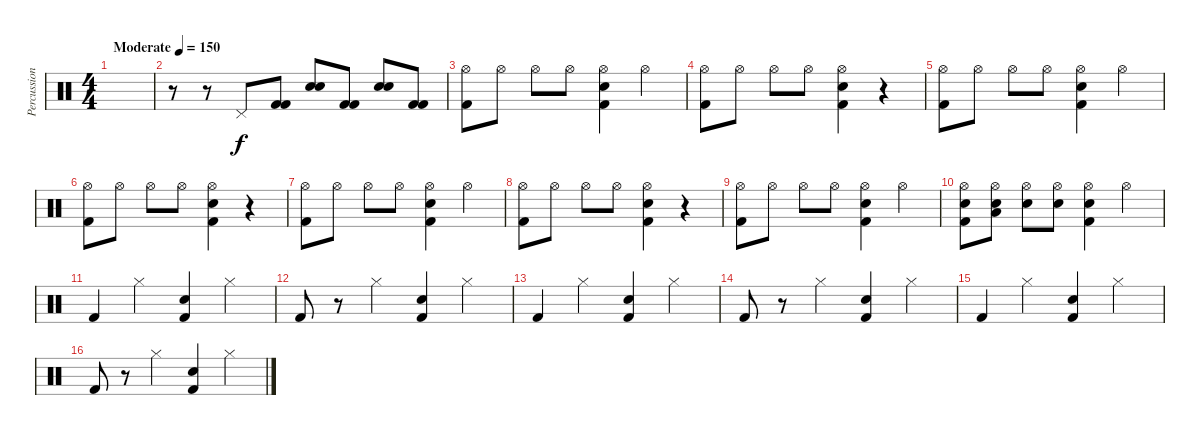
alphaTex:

\track ("Percussions" "Percussion") {instrument percussion}
\staff {score}
\articulation defaults
\ts (4 4)
\tempo (150 "Moderate")
\clef neutral
\ks c
|
r.8 r.8 "Pedal Hi-Hat (hit)".8 ("Kick (hit) 2" "Kick (hit) 2").8 ("Electric Snare (hit)" "Electric Snare (hit)").8 ("Kick (hit) 2" "Kick (hit) 2").8 ("Electric Snare (hit)" "Electric Snare (hit)").8 ("Kick (hit) 2" "Kick (hit) 2").8 |
("Hi-Hat (open)" "Kick (hit) 2").8 "Hi-Hat (open)".8 "Hi-Hat (open)".8 "Hi-Hat (open)".8 ("Hi-Hat (open)" "Electric Snare (hit)" "Kick (hit) 2").4 "Hi-Hat (open)".4 |
("Hi-Hat (open)" "Kick (hit) 2").8 "Hi-Hat (open)".8 "Hi-Hat (open)".8 "Hi-Hat (open)".8 ("Hi-Hat (open)" "Electric Snare (hit)" "Kick (hit) 2").4 r.4 |
("Hi-Hat (open)" "Kick (hit) 2").8 "Hi-Hat (open)".8 "Hi-Hat (open)".8 "Hi-Hat (open)".8 ("Hi-Hat (open)" "Electric Snare (hit)" "Kick (hit) 2").4 "Hi-Hat (open)".4 |
("Hi-Hat (open)" "Kick (hit) 2").8 "Hi-Hat (open)".8 "Hi-Hat (open)".8 "Hi-Hat (open)".8 ("Hi-Hat (open)" "Electric Snare (hit)" "Kick (hit) 2").4 r.4 |
("Hi-Hat (open)" "Kick (hit) 2").8 "Hi-Hat (open)".8 "Hi-Hat (open)".8 "Hi-Hat (open)".8 ("Hi-Hat (open)" "Electric Snare (hit)" "Kick (hit) 2").4 "Hi-Hat (open)".4 |
("Hi-Hat (open)" "Kick (hit) 2").8 "Hi-Hat (open)".8 "Hi-Hat (open)".8 "Hi-Hat (open)".8 ("Hi-Hat (open)" "Electric Snare (hit)" "Kick (hit) 2").4 r.4 |
("Hi-Hat (open)" "Kick (hit) 2").8 "Hi-Hat (open)".8 "Hi-Hat (open)".8 "Hi-Hat (open)".8 ("Hi-Hat (open)" "Electric Snare (hit)" "Kick (hit) 2").4 "Hi-Hat (open)".4 |
("Hi-Hat (open)" "Electric Snare (hit)" "Kick (hit) 2").8 ("Hi-Hat (open)" "Electric Snare (hit)" "Low Tom (hit)").8 ("Hi-Hat (open)" "Electric Snare (hit)").8 ("Hi-Hat (open)" "Electric Snare (hit)").8 ("Hi-Hat (open)" "Electric Snare (hit)" "Kick (hit) 2").4 "Hi-Hat (open)".4 |
"Kick (hit) 2".4 "Hi-Hat (closed)".4 ("Electric Snare (hit)" "Kick (hit) 2").4 "Hi-Hat (closed)".4 |
"Kick (hit) 2".8 r.8 "Hi-Hat (closed)".4 ("Electric Snare (hit)" "Kick (hit) 2").4 "Hi-Hat (closed)".4 |
"Kick (hit) 2".4 "Hi-Hat (closed)".4 ("Electric Snare (hit)" "Kick (hit) 2").4 "Hi-Hat (closed)".4 |
"Kick (hit) 2".8 r.8 "Hi-Hat (closed)".4 ("Electric Snare (hit)" "Kick (hit) 2").4 "Hi-Hat (closed)".4 |
"Kick (hit) 2".4 "Hi-Hat (closed)".4 ("Electric Snare (hit)" "Kick (hit) 2").4 "Hi-Hat (closed)".4 |
"Kick (hit) 2".8 r.8 "Hi-Hat (closed)".4 ("Electric Snare (hit)" "Kick (hit) 2").4 "Hi-Hat (closed)".4
